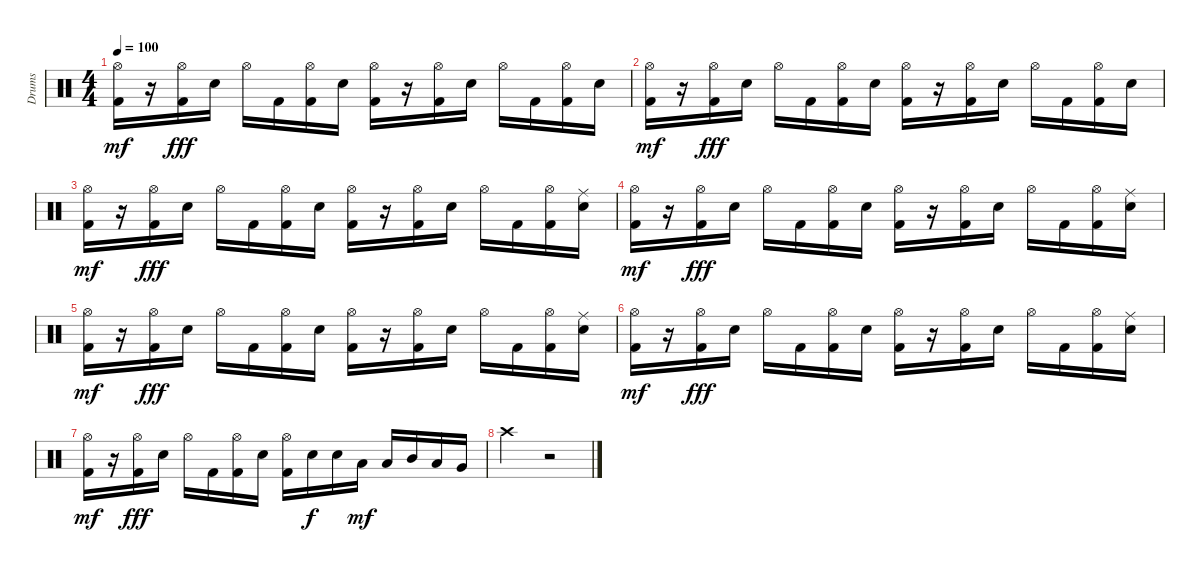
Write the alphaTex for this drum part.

\track ("Drums" "Drums") {instrument percussion}
\staff {score}
\articulation defaults
\ts (4 4)
\tempo 100
\clef neutral
\ks c
("Hi-Hat (open)" "Kick (hit) 2").16{dy mf} r.16 ("Hi-Hat (open)" "Kick (hit) 2").16{dy fff} "Electric Snare (hit)".16 "Hi-Hat (open)".16 "Kick (hit) 2".16 ("Hi-Hat (open)" "Kick (hit) 2").16 "Electric Snare (hit)".16 ("Hi-Hat (open)" "Kick (hit) 2").16 r.16 ("Hi-Hat (open)" "Kick (hit) 2").16 "Electric Snare (hit)".16 "Hi-Hat (open)".16 "Kick (hit) 2".16 ("Hi-Hat (open)" "Kick (hit) 2").16 "Electric Snare (hit)".16 |
("Hi-Hat (open)" "Kick (hit) 2").16{dy mf} r.16 ("Hi-Hat (open)" "Kick (hit) 2").16{dy fff} "Electric Snare (hit)".16 "Hi-Hat (open)".16 "Kick (hit) 2".16 ("Hi-Hat (open)" "Kick (hit) 2").16 "Electric Snare (hit)".16 ("Hi-Hat (open)" "Kick (hit) 2").16 r.16 ("Hi-Hat (open)" "Kick (hit) 2").16 "Electric Snare (hit)".16 "Hi-Hat (open)".16 "Kick (hit) 2".16 ("Hi-Hat (open)" "Kick (hit) 2").16 "Electric Snare (hit)".16 |
("Hi-Hat (open)" "Kick (hit) 2").16{dy mf} r.16 ("Hi-Hat (open)" "Kick (hit) 2").16{dy fff} "Electric Snare (hit)".16 "Hi-Hat (open)".16 "Kick (hit) 2".16 ("Hi-Hat (open)" "Kick (hit) 2").16 "Electric Snare (hit)".16 ("Hi-Hat (open)" "Kick (hit) 2").16 r.16 ("Hi-Hat (open)" "Kick (hit) 2").16 "Electric Snare (hit)".16 "Hi-Hat (open)".16 "Kick (hit) 2".16 ("Hi-Hat (open)" "Kick (hit) 2").16 ("Ride (middle)" "Electric Snare (hit)").16 |
("Hi-Hat (open)" "Kick (hit) 2").16{dy mf} r.16 ("Hi-Hat (open)" "Kick (hit) 2").16{dy fff} "Electric Snare (hit)".16 "Hi-Hat (open)".16 "Kick (hit) 2".16 ("Hi-Hat (open)" "Kick (hit) 2").16 "Electric Snare (hit)".16 ("Hi-Hat (open)" "Kick (hit) 2").16 r.16 ("Hi-Hat (open)" "Kick (hit) 2").16 "Electric Snare (hit)".16 "Hi-Hat (open)".16 "Kick (hit) 2".16 ("Hi-Hat (open)" "Kick (hit) 2").16 ("Ride (middle)" "Electric Snare (hit)").16 |
("Hi-Hat (open)" "Kick (hit) 2").16{dy mf} r.16 ("Hi-Hat (open)" "Kick (hit) 2").16{dy fff} "Electric Snare (hit)".16 "Hi-Hat (open)".16 "Kick (hit) 2".16 ("Hi-Hat (open)" "Kick (hit) 2").16 "Electric Snare (hit)".16 ("Hi-Hat (open)" "Kick (hit) 2").16 r.16 ("Hi-Hat (open)" "Kick (hit) 2").16 "Electric Snare (hit)".16 "Hi-Hat (open)".16 "Kick (hit) 2".16 ("Hi-Hat (open)" "Kick (hit) 2").16 ("Ride (middle)" "Electric Snare (hit)").16 |
("Hi-Hat (open)" "Kick (hit) 2").16{dy mf} r.16 ("Hi-Hat (open)" "Kick (hit) 2").16{dy fff} "Electric Snare (hit)".16 "Hi-Hat (open)".16 "Kick (hit) 2".16 ("Hi-Hat (open)" "Kick (hit) 2").16 "Electric Snare (hit)".16 ("Hi-Hat (open)" "Kick (hit) 2").16 r.16 ("Hi-Hat (open)" "Kick (hit) 2").16 "Electric Snare (hit)".16 "Hi-Hat (open)".16 "Kick (hit) 2".16 ("Hi-Hat (open)" "Kick (hit) 2").16 ("Ride (middle)" "Electric Snare (hit)").16 |
("Hi-Hat (open)" "Kick (hit) 2").16{dy mf} r.16 ("Hi-Hat (open)" "Kick (hit) 2").16{dy fff} "Electric Snare (hit)".16 "Hi-Hat (open)".16 "Kick (hit) 2".16 ("Hi-Hat (open)" "Kick (hit) 2").16 "Electric Snare (hit)".16 ("Hi-Hat (open)" "Kick (hit) 2").16 "Electric Snare (hit)".16{dy f} "Electric Snare (hit)".16 "Low Tom (hit)".16{dy mf} "Low Tom (hit)".16 "Mid Tom (hit)".16 "Low Tom (hit)".16 "Very Low Tom (hit)".16 |
"Crash high (hit)".2 r.2
